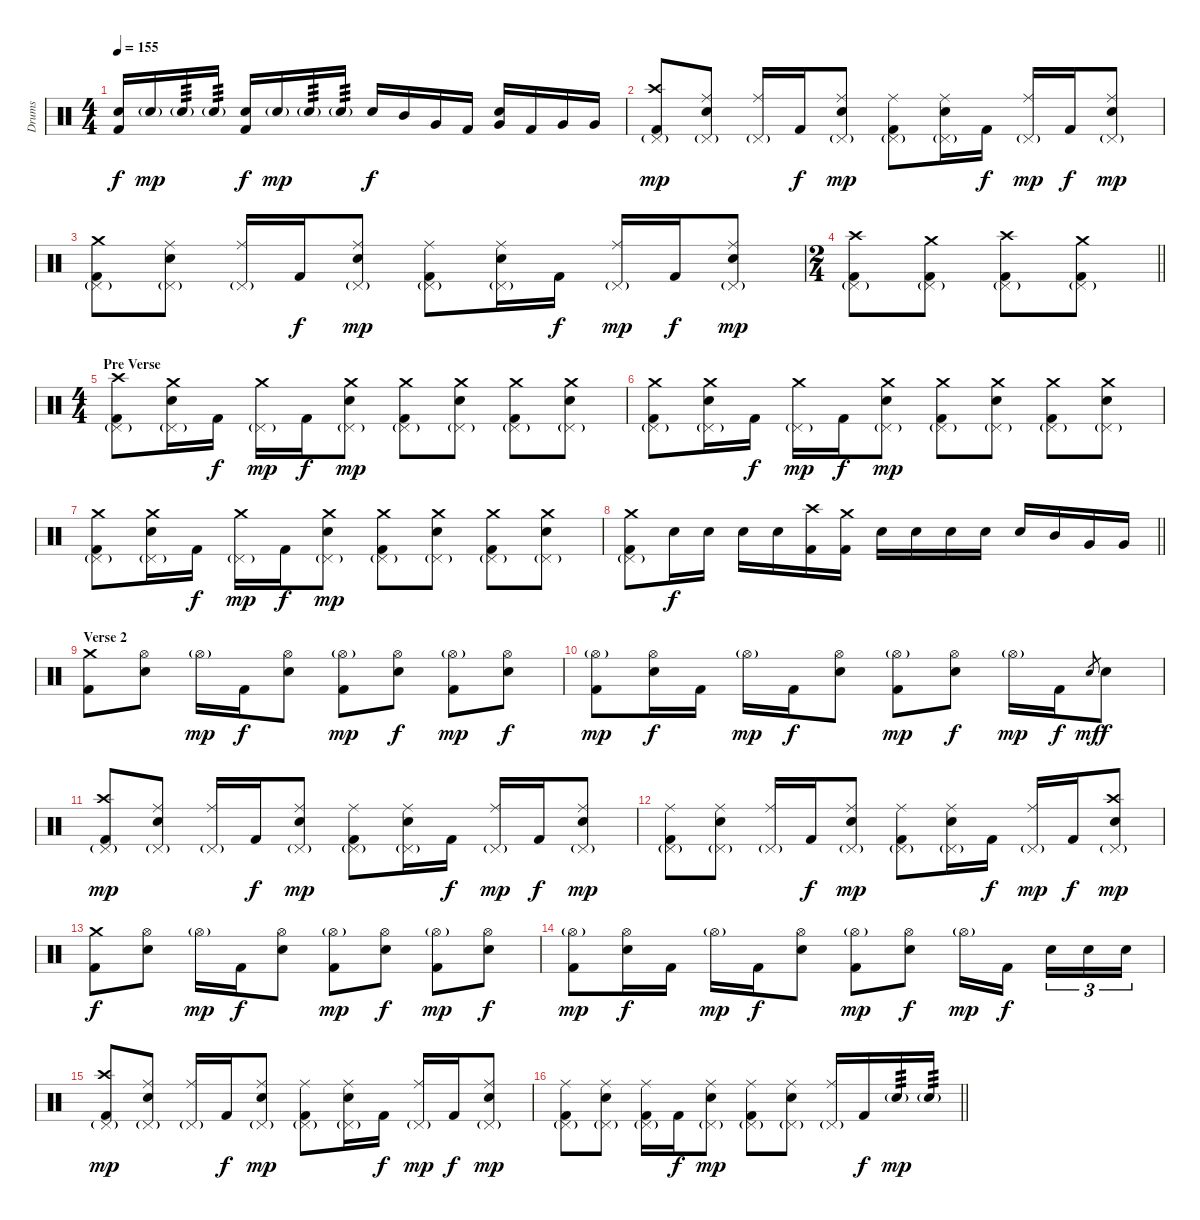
\track ("Drums" "Drums") {instrument percussion}
\staff {score}
\articulation defaults
\ts (4 4)
\tempo 155
\clef neutral
\ks c
("Electric Snare (hit)" "Kick (hit) 2").16{dy f} "Electric Snare (hit)"{g}.16{dy mp} "Electric Snare (hit)"{g}.16{tp 3} "Electric Snare (hit)"{g}.16{tp 3} ("Electric Snare (hit)" "Kick (hit) 2").16{dy f} "Electric Snare (hit)"{g}.16{dy mp} "Electric Snare (hit)"{g}.16{tp 3} "Electric Snare (hit)"{g}.16{tp 3} "Electric Snare (hit)".16{dy f} "Mid Tom (hit)".16 "Very Low Tom (hit)".16 "Kick (hit) 2".16 ("Electric Snare (hit)" "Very Low Tom (hit)").16 "Kick (hit) 2".16 "Very Low Tom (hit)".16 "Very Low Tom (hit)".16 |
("Crash high (hit)" "Pedal Hi-Hat (hit)"{g} "Kick (hit) 2").8{dy mp} ("Ride (middle)" "Pedal Hi-Hat (hit)"{g} "Electric Snare (hit)").8 ("Ride (middle)" "Pedal Hi-Hat (hit)"{g}).16 "Kick (hit) 2".16{dy f} ("Ride (middle)" "Pedal Hi-Hat (hit)"{g} "Electric Snare (hit)").8{dy mp} ("Ride (middle)" "Pedal Hi-Hat (hit)"{g} "Kick (hit) 2").8 ("Ride (middle)" "Pedal Hi-Hat (hit)"{g} "Electric Snare (hit)").16 "Kick (hit) 2".16{dy f} ("Ride (middle)" "Pedal Hi-Hat (hit)"{g}).16{dy mp} "Kick (hit) 2".16{dy f} ("Ride (middle)" "Pedal Hi-Hat (hit)"{g} "Electric Snare (hit)").8{dy mp} |
("Crash medium (hit)" "Pedal Hi-Hat (hit)"{g} "Kick (hit) 2").8 ("Ride (middle)" "Pedal Hi-Hat (hit)"{g} "Electric Snare (hit)").8 ("Ride (middle)" "Pedal Hi-Hat (hit)"{g}).16 "Kick (hit) 2".16{dy f} ("Ride (middle)" "Pedal Hi-Hat (hit)"{g} "Electric Snare (hit)").8{dy mp} ("Ride (middle)" "Pedal Hi-Hat (hit)"{g} "Kick (hit) 2").8 ("Ride (middle)" "Pedal Hi-Hat (hit)"{g} "Electric Snare (hit)").16 "Kick (hit) 2".16{dy f} ("Ride (middle)" "Pedal Hi-Hat (hit)"{g}).16{dy mp} "Kick (hit) 2".16{dy f} ("Ride (middle)" "Pedal Hi-Hat (hit)"{g} "Electric Snare (hit)").8{dy mp} |
\ts (2 4)
\barLineRight lightlight
("Crash high (hit)" "Pedal Hi-Hat (hit)"{g} "Kick (hit) 2").8 ("Crash medium (hit)" "Pedal Hi-Hat (hit)"{g} "Kick (hit) 2").8 ("Crash high (hit)" "Pedal Hi-Hat (hit)"{g} "Kick (hit) 2").8 ("Crash medium (hit)" "Pedal Hi-Hat (hit)"{g} "Kick (hit) 2").8 |
\ts (4 4)
\section ("" "Pre Verse")
("Crash high (hit)" "Pedal Hi-Hat (hit)"{g} "Kick (hit) 2").8 ("Crash medium (hit)" "Pedal Hi-Hat (hit)"{g} "Electric Snare (hit)").16 "Kick (hit) 2".16{dy f} ("Crash medium (hit)" "Pedal Hi-Hat (hit)"{g}).16{dy mp} "Kick (hit) 2".16{dy f} ("Crash medium (hit)" "Pedal Hi-Hat (hit)"{g} "Electric Snare (hit)").8{dy mp} ("Crash medium (hit)" "Pedal Hi-Hat (hit)"{g} "Kick (hit) 2").8 ("Crash medium (hit)" "Pedal Hi-Hat (hit)"{g} "Electric Snare (hit)").8 ("Crash medium (hit)" "Pedal Hi-Hat (hit)"{g} "Kick (hit) 2").8 ("Crash medium (hit)" "Pedal Hi-Hat (hit)"{g} "Electric Snare (hit)").8 |
("Crash medium (hit)" "Pedal Hi-Hat (hit)"{g} "Kick (hit) 2").8 ("Crash medium (hit)" "Pedal Hi-Hat (hit)"{g} "Electric Snare (hit)").16 "Kick (hit) 2".16{dy f} ("Crash medium (hit)" "Pedal Hi-Hat (hit)"{g}).16{dy mp} "Kick (hit) 2".16{dy f} ("Crash medium (hit)" "Pedal Hi-Hat (hit)"{g} "Electric Snare (hit)").8{dy mp} ("Crash medium (hit)" "Pedal Hi-Hat (hit)"{g} "Kick (hit) 2").8 ("Crash medium (hit)" "Pedal Hi-Hat (hit)"{g} "Electric Snare (hit)").8 ("Crash medium (hit)" "Pedal Hi-Hat (hit)"{g} "Kick (hit) 2").8 ("Crash medium (hit)" "Pedal Hi-Hat (hit)"{g} "Electric Snare (hit)").8 |
("Crash medium (hit)" "Pedal Hi-Hat (hit)"{g} "Kick (hit) 2").8 ("Crash medium (hit)" "Pedal Hi-Hat (hit)"{g} "Electric Snare (hit)").16 "Kick (hit) 2".16{dy f} ("Crash medium (hit)" "Pedal Hi-Hat (hit)"{g}).16{dy mp} "Kick (hit) 2".16{dy f} ("Crash medium (hit)" "Pedal Hi-Hat (hit)"{g} "Electric Snare (hit)").8{dy mp} ("Crash medium (hit)" "Pedal Hi-Hat (hit)"{g} "Kick (hit) 2").8 ("Crash medium (hit)" "Pedal Hi-Hat (hit)"{g} "Electric Snare (hit)").8 ("Crash medium (hit)" "Pedal Hi-Hat (hit)"{g} "Kick (hit) 2").8 ("Crash medium (hit)" "Pedal Hi-Hat (hit)"{g} "Electric Snare (hit)").8 |
\barLineRight lightlight
("Crash medium (hit)" "Pedal Hi-Hat (hit)"{g} "Kick (hit) 2").8 "Electric Snare (hit)".16{dy f} "Electric Snare (hit)".16 "Electric Snare (hit)".16 "Electric Snare (hit)".16 ("Crash high (hit)" "Kick (hit) 2").16 ("Crash medium (hit)" "Kick (hit) 2").16 "Electric Snare (hit)".16 "Electric Snare (hit)".16 "Electric Snare (hit)".16 "Electric Snare (hit)".16 "Electric Snare (hit)".16 "Mid Tom (hit)".16 "Very Low Tom (hit)".16 "Very Low Tom (hit)".16 |
\section ("" "Verse 2")
("Crash medium (hit)" "Kick (hit) 2").8 ("Hi-Hat (open)" "Electric Snare (hit)").8 "Hi-Hat (open)"{g}.16{dy mp} "Kick (hit) 2".16{dy f} ("Hi-Hat (open)" "Electric Snare (hit)").8 ("Hi-Hat (open)"{g} "Kick (hit) 2").8{dy mp} ("Hi-Hat (open)" "Electric Snare (hit)").8{dy f} ("Hi-Hat (open)"{g} "Kick (hit) 2").8{dy mp} ("Hi-Hat (open)" "Electric Snare (hit)").8{dy f} |
("Hi-Hat (open)"{g} "Kick (hit) 2").8{dy mp} ("Hi-Hat (open)" "Electric Snare (hit)").16{dy f} "Kick (hit) 2".16 "Hi-Hat (open)"{g}.16{dy mp} "Kick (hit) 2".16{dy f} ("Hi-Hat (open)" "Electric Snare (hit)").8 ("Hi-Hat (open)"{g} "Kick (hit) 2").8{dy mp} ("Hi-Hat (open)" "Electric Snare (hit)").8{dy f} "Hi-Hat (open)"{g}.16{dy mp} "Kick (hit) 2".16{dy f} "Electric Snare (hit)".8{gr dy mf} "Electric Snare (hit)".8{dy f} |
("Crash high (hit)" "Pedal Hi-Hat (hit)"{g} "Kick (hit) 2").8{dy mp} ("Ride (middle)" "Pedal Hi-Hat (hit)"{g} "Electric Snare (hit)").8 ("Ride (middle)" "Pedal Hi-Hat (hit)"{g}).16 "Kick (hit) 2".16{dy f} ("Ride (middle)" "Pedal Hi-Hat (hit)"{g} "Electric Snare (hit)").8{dy mp} ("Ride (middle)" "Pedal Hi-Hat (hit)"{g} "Kick (hit) 2").8 ("Ride (middle)" "Pedal Hi-Hat (hit)"{g} "Electric Snare (hit)").16 "Kick (hit) 2".16{dy f} ("Ride (middle)" "Pedal Hi-Hat (hit)"{g}).16{dy mp} "Kick (hit) 2".16{dy f} ("Ride (middle)" "Pedal Hi-Hat (hit)"{g} "Electric Snare (hit)").8{dy mp} |
("Ride (middle)" "Pedal Hi-Hat (hit)"{g} "Kick (hit) 2").8 ("Ride (middle)" "Pedal Hi-Hat (hit)"{g} "Electric Snare (hit)").8 ("Ride (middle)" "Pedal Hi-Hat (hit)"{g}).16 "Kick (hit) 2".16{dy f} ("Ride (middle)" "Pedal Hi-Hat (hit)"{g} "Electric Snare (hit)").8{dy mp} ("Ride (middle)" "Pedal Hi-Hat (hit)"{g} "Kick (hit) 2").8 ("Ride (middle)" "Pedal Hi-Hat (hit)"{g} "Electric Snare (hit)").16 "Kick (hit) 2".16{dy f} ("Ride (middle)" "Pedal Hi-Hat (hit)"{g}).16{dy mp} "Kick (hit) 2".16{dy f} ("Crash high (hit)" "Pedal Hi-Hat (hit)"{g} "Electric Snare (hit)").8{dy mp} |
("Crash medium (hit)" "Kick (hit) 2").8{dy f} ("Hi-Hat (open)" "Electric Snare (hit)").8 "Hi-Hat (open)"{g}.16{dy mp} "Kick (hit) 2".16{dy f} ("Hi-Hat (open)" "Electric Snare (hit)").8 ("Hi-Hat (open)"{g} "Kick (hit) 2").8{dy mp} ("Hi-Hat (open)" "Electric Snare (hit)").8{dy f} ("Hi-Hat (open)"{g} "Kick (hit) 2").8{dy mp} ("Hi-Hat (open)" "Electric Snare (hit)").8{dy f} |
("Hi-Hat (open)"{g} "Kick (hit) 2").8{dy mp} ("Hi-Hat (open)" "Electric Snare (hit)").16{dy f} "Kick (hit) 2".16 "Hi-Hat (open)"{g}.16{dy mp} "Kick (hit) 2".16{dy f} ("Hi-Hat (open)" "Electric Snare (hit)").8 ("Hi-Hat (open)"{g} "Kick (hit) 2").8{dy mp} ("Hi-Hat (open)" "Electric Snare (hit)").8{dy f} "Hi-Hat (open)"{g}.16{dy mp} "Kick (hit) 2".16{dy f} "Electric Snare (hit)".16{tu (3 2)} "Electric Snare (hit)".16{tu (3 2)} "Electric Snare (hit)".16{tu (3 2)} |
("Crash high (hit)" "Pedal Hi-Hat (hit)"{g} "Kick (hit) 2").8{dy mp} ("Ride (middle)" "Pedal Hi-Hat (hit)"{g} "Electric Snare (hit)").8 ("Ride (middle)" "Pedal Hi-Hat (hit)"{g}).16 "Kick (hit) 2".16{dy f} ("Ride (middle)" "Pedal Hi-Hat (hit)"{g} "Electric Snare (hit)").8{dy mp} ("Ride (middle)" "Pedal Hi-Hat (hit)"{g} "Kick (hit) 2").8 ("Ride (middle)" "Pedal Hi-Hat (hit)"{g} "Electric Snare (hit)").16 "Kick (hit) 2".16{dy f} ("Ride (middle)" "Pedal Hi-Hat (hit)"{g}).16{dy mp} "Kick (hit) 2".16{dy f} ("Ride (middle)" "Pedal Hi-Hat (hit)"{g} "Electric Snare (hit)").8{dy mp} |
\barLineRight lightlight
("Ride (middle)" "Pedal Hi-Hat (hit)"{g} "Kick (hit) 2").8 ("Ride (middle)" "Pedal Hi-Hat (hit)"{g} "Electric Snare (hit)").8 ("Ride (middle)" "Pedal Hi-Hat (hit)"{g} "Kick (hit) 2").16 "Kick (hit) 2".16{dy f} ("Ride (middle)" "Pedal Hi-Hat (hit)"{g} "Electric Snare (hit)").8{dy mp} ("Ride (middle)" "Pedal Hi-Hat (hit)"{g} "Kick (hit) 2").8 ("Ride (middle)" "Pedal Hi-Hat (hit)"{g} "Electric Snare (hit)").8 ("Ride (middle)" "Pedal Hi-Hat (hit)"{g}).16 "Kick (hit) 2".16{dy f} "Electric Snare (hit)"{g}.16{tp 3 dy mp} "Electric Snare (hit)"{g}.16{tp 3}
